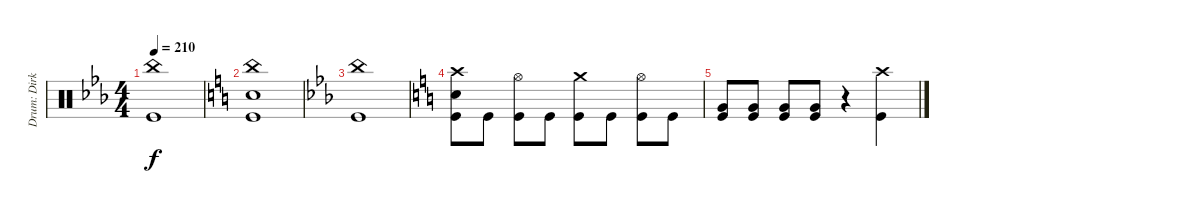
\track ("Drum: Dirk" "Drum: Dirk") {instrument percussion}
\staff {score}
\articulation defaults
\ts (4 4)
\tempo 210
\clef neutral
\ks cminor
("China (hit)" "Kick (hit)").1{dy f} |
\ks c
("China (hit)" "Electric Snare (hit)" "Kick (hit)").1 |
\ks cminor
("China (hit)" "Kick (hit)").1 |
\ks c
("Crash high (hit)" "Electric Snare (hit)" "Kick (hit)").8 "Kick (hit)".8 ("Hi-Hat (open)" "Kick (hit)").8 "Kick (hit)".8 ("Crash medium (hit)" "Kick (hit)").8 "Kick (hit)".8 ("Hi-Hat (open)" "Kick (hit)").8 "Kick (hit)".8 |
("Very Low Tom (hit)" "Kick (hit)").8 ("Very Low Tom (hit)" "Kick (hit)").8 ("Very Low Tom (hit)" "Kick (hit)").8 ("Very Low Tom (hit)" "Kick (hit)").8 r.4 ("Crash high (hit)" "Kick (hit)").4
